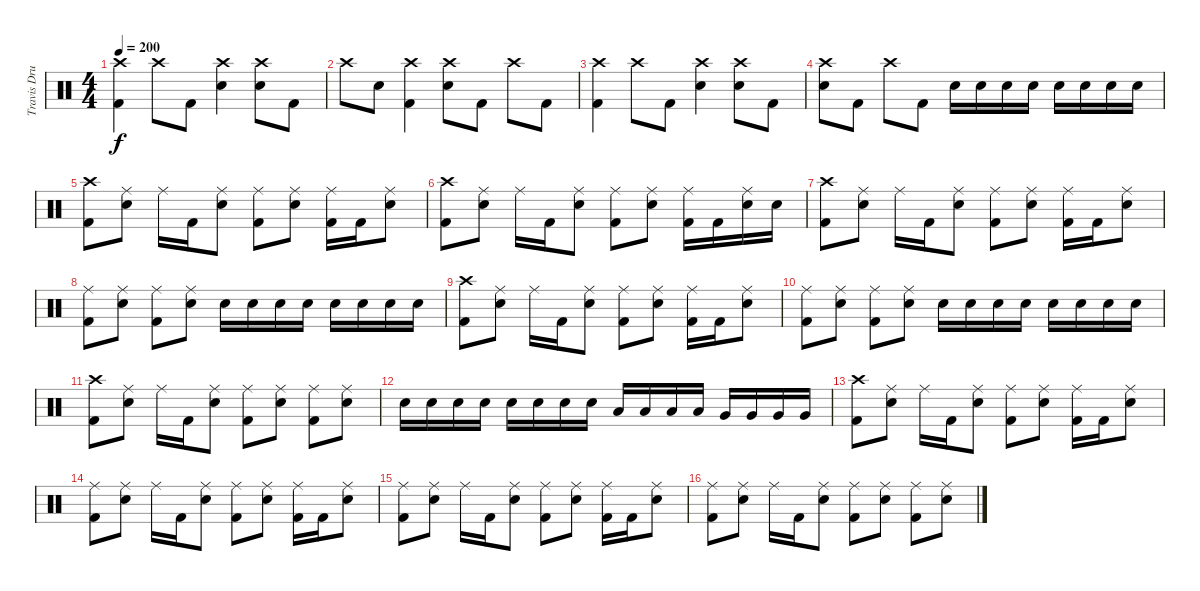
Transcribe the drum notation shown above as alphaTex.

\track ("Travis Drums" "Travis Dru") {instrument percussion}
\staff {score}
\articulation defaults
\ts (4 4)
\tempo 200
\clef neutral
\ks c
("Crash high (hit)" "Kick (hit) 2").4{dy f} "Crash high (hit)".8 "Kick (hit) 2".8 ("Crash high (hit)" "Electric Snare (hit)").4 ("Crash high (hit)" "Electric Snare (hit)").8 "Kick (hit) 2".8 |
"Crash high (hit)".8 "Electric Snare (hit)".8 ("Crash high (hit)" "Kick (hit) 2").4 ("Crash high (hit)" "Electric Snare (hit)").8 "Kick (hit) 2".8 "Crash high (hit)".8 "Kick (hit) 2".8 |
("Crash high (hit)" "Kick (hit) 2").4 "Crash high (hit)".8 "Kick (hit) 2".8 ("Crash high (hit)" "Electric Snare (hit)").4 ("Crash high (hit)" "Electric Snare (hit)").8 "Kick (hit) 2".8 |
("Crash high (hit)" "Electric Snare (hit)").8 "Kick (hit) 2".8 "Crash high (hit)".8 "Kick (hit) 2".8 "Electric Snare (hit)".16 "Electric Snare (hit)".16 "Electric Snare (hit)".16 "Electric Snare (hit)".16 "Electric Snare (hit)".16 "Electric Snare (hit)".16 "Electric Snare (hit)".16 "Electric Snare (hit)".16 |
("Crash high (hit)" "Kick (hit) 2").8 ("Ride (middle)" "Electric Snare (hit)").8 "Ride (middle)".16 "Kick (hit) 2".16 ("Ride (middle)" "Electric Snare (hit)").8 ("Ride (middle)" "Kick (hit) 2").8 ("Ride (middle)" "Electric Snare (hit)").8 ("Ride (middle)" "Kick (hit) 2").16 "Kick (hit) 2".16 ("Ride (middle)" "Electric Snare (hit)").8 |
("Crash high (hit)" "Kick (hit) 2").8 ("Ride (middle)" "Electric Snare (hit)").8 "Ride (middle)".16 "Kick (hit) 2".16 ("Ride (middle)" "Electric Snare (hit)").8 ("Ride (middle)" "Kick (hit) 2").8 ("Ride (middle)" "Electric Snare (hit)").8 ("Ride (middle)" "Kick (hit) 2").16 "Kick (hit) 2".16 ("Ride (middle)" "Electric Snare (hit)").16 "Electric Snare (hit)".16 |
("Crash high (hit)" "Kick (hit) 2").8 ("Ride (middle)" "Electric Snare (hit)").8 "Ride (middle)".16 "Kick (hit) 2".16 ("Ride (middle)" "Electric Snare (hit)").8 ("Ride (middle)" "Kick (hit) 2").8 ("Ride (middle)" "Electric Snare (hit)").8 ("Ride (middle)" "Kick (hit) 2").16 "Kick (hit) 2".16 ("Ride (middle)" "Electric Snare (hit)").8 |
("Ride (middle)" "Kick (hit) 2").8 ("Ride (middle)" "Electric Snare (hit)").8 ("Ride (middle)" "Kick (hit) 2").8 ("Ride (middle)" "Electric Snare (hit)").8 "Electric Snare (hit)".16 "Electric Snare (hit)".16 "Electric Snare (hit)".16 "Electric Snare (hit)".16 "Electric Snare (hit)".16 "Electric Snare (hit)".16 "Electric Snare (hit)".16 "Electric Snare (hit)".16 |
("Crash high (hit)" "Kick (hit) 2").8 ("Ride (middle)" "Electric Snare (hit)").8 "Ride (middle)".16 "Kick (hit) 2".16 ("Ride (middle)" "Electric Snare (hit)").8 ("Ride (middle)" "Kick (hit) 2").8 ("Ride (middle)" "Electric Snare (hit)").8 ("Ride (middle)" "Kick (hit) 2").16 "Kick (hit) 2".16 ("Ride (middle)" "Electric Snare (hit)").8 |
("Ride (middle)" "Kick (hit) 2").8 ("Ride (middle)" "Electric Snare (hit)").8 ("Ride (middle)" "Kick (hit) 2").8 ("Ride (middle)" "Electric Snare (hit)").8 "Electric Snare (hit)".16 "Electric Snare (hit)".16 "Electric Snare (hit)".16 "Electric Snare (hit)".16 "Electric Snare (hit)".16 "Electric Snare (hit)".16 "Electric Snare (hit)".16 "Electric Snare (hit)".16 |
("Crash high (hit)" "Kick (hit) 2").8 ("Ride (middle)" "Electric Snare (hit)").8 "Ride (middle)".16 "Kick (hit) 2".16 ("Ride (middle)" "Electric Snare (hit)").8 ("Ride (middle)" "Kick (hit) 2").8 ("Ride (middle)" "Electric Snare (hit)").8 ("Ride (middle)" "Kick (hit) 2").8 ("Ride (middle)" "Electric Snare (hit)").8 |
"Electric Snare (hit)".16 "Electric Snare (hit)".16 "Electric Snare (hit)".16 "Electric Snare (hit)".16 "Electric Snare (hit)".16 "Electric Snare (hit)".16 "Electric Snare (hit)".16 "Electric Snare (hit)".16 "Low Tom (hit)".16 "Low Tom (hit)".16 "Low Tom (hit)".16 "Low Tom (hit)".16 "Very Low Tom (hit)".16 "Very Low Tom (hit)".16 "Very Low Tom (hit)".16 "Very Low Tom (hit)".16 |
("Crash high (hit)" "Kick (hit) 2").8 ("Ride (middle)" "Electric Snare (hit)").8 "Ride (middle)".16 "Kick (hit) 2".16 ("Ride (middle)" "Electric Snare (hit)").8 ("Ride (middle)" "Kick (hit) 2").8 ("Ride (middle)" "Electric Snare (hit)").8 ("Ride (middle)" "Kick (hit) 2").16 "Kick (hit) 2".16 ("Ride (middle)" "Electric Snare (hit)").8 |
("Ride (middle)" "Kick (hit) 2").8 ("Ride (middle)" "Electric Snare (hit)").8 "Ride (middle)".16 "Kick (hit) 2".16 ("Ride (middle)" "Electric Snare (hit)").8 ("Ride (middle)" "Kick (hit) 2").8 ("Ride (middle)" "Electric Snare (hit)").8 ("Ride (middle)" "Kick (hit) 2").16 "Kick (hit) 2".16 ("Ride (middle)" "Electric Snare (hit)").8 |
("Ride (middle)" "Kick (hit) 2").8 ("Ride (middle)" "Electric Snare (hit)").8 "Ride (middle)".16 "Kick (hit) 2".16 ("Ride (middle)" "Electric Snare (hit)").8 ("Ride (middle)" "Kick (hit) 2").8 ("Ride (middle)" "Electric Snare (hit)").8 ("Ride (middle)" "Kick (hit) 2").16 "Kick (hit) 2".16 ("Ride (middle)" "Electric Snare (hit)").8 |
("Ride (middle)" "Kick (hit) 2").8 ("Ride (middle)" "Electric Snare (hit)").8 "Ride (middle)".16 "Kick (hit) 2".16 ("Ride (middle)" "Electric Snare (hit)").8 ("Ride (middle)" "Kick (hit) 2").8 ("Ride (middle)" "Electric Snare (hit)").8 ("Ride (middle)" "Kick (hit) 2").8 ("Ride (middle)" "Electric Snare (hit)").8
